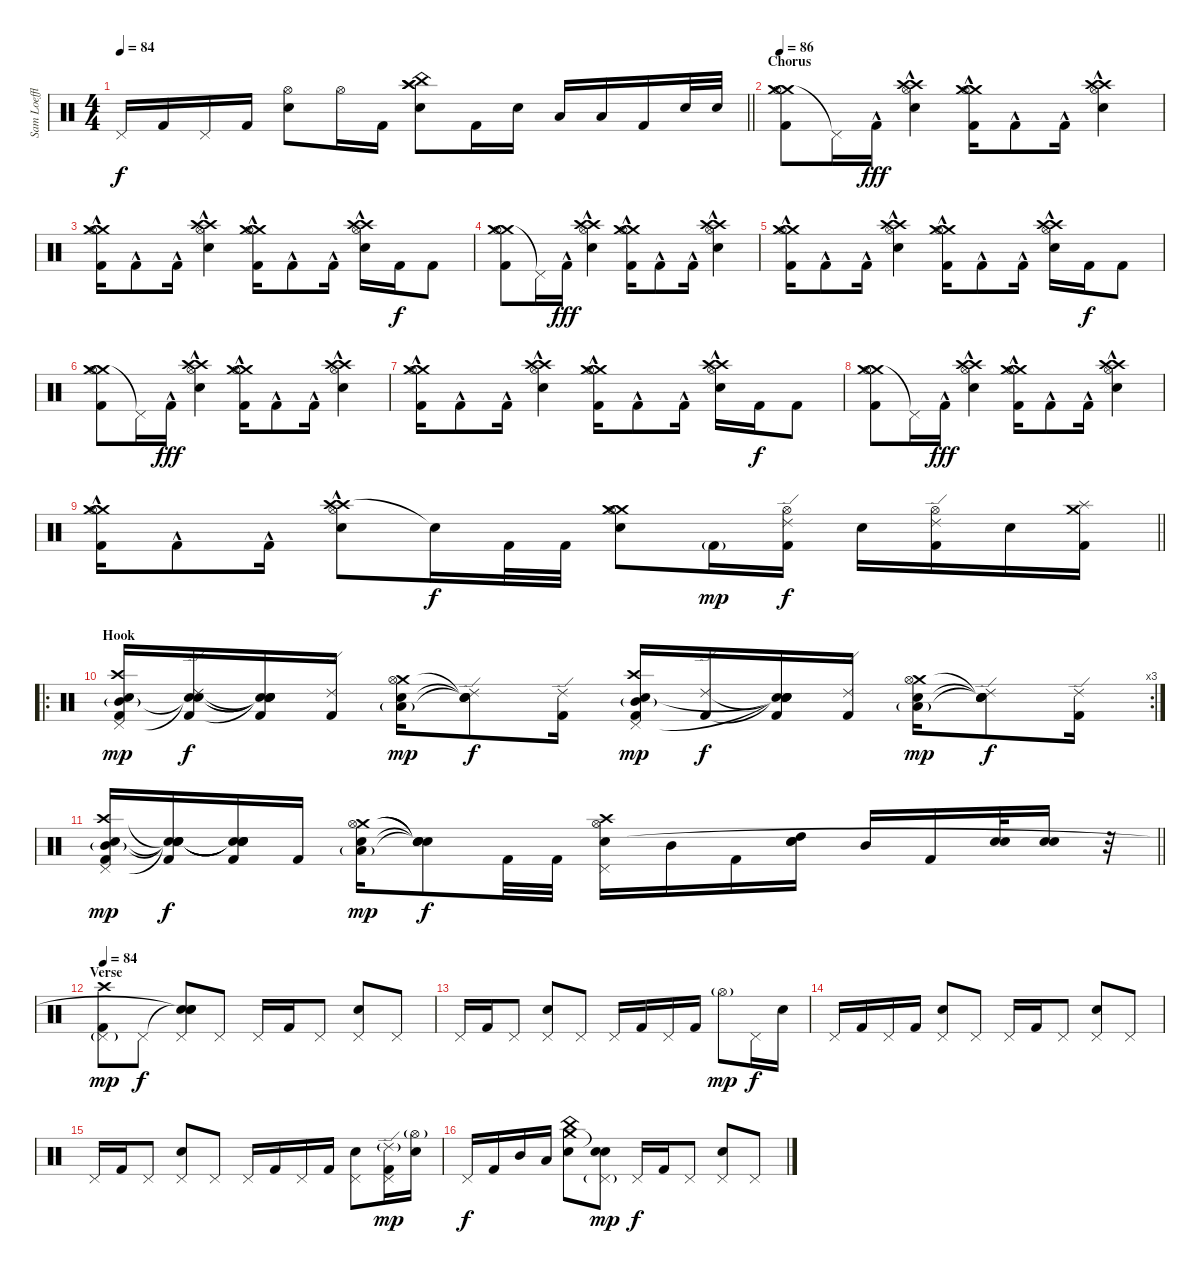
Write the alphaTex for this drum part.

\track ("Sam Loeffler- Drums" "Sam Loeffl") {instrument percussion}
\staff {score}
\articulation defaults
\ts (4 4)
\tempo 84
\clef neutral
\barLineRight lightlight
\ks c "Pedal Hi-Hat (hit)".16{dy f} "Kick (hit) 2".16 "Pedal Hi-Hat (hit)".16 "Kick (hit) 2".16
("Hi-Hat (open)" "Electric Snare (hit)").8 "Hi-Hat (open)".16 "Kick (hit) 2".16 ("China (hit)" "Crash high (hit)" "Crash high (hit)" "Electric Snare (hit)").8 "Kick (hit) 2".16 "Electric Snare (hit)".16 "Low Tom (hit)".16 "Low Floor Tom (hit)".16 "Kick (hit) 2".16 "Electric Snare (hit)".32 "Electric Snare (hit)".32 |
\section ("" "Chorus")
\tempo 86
("Crash medium (hit)" "Crash medium (hit)" "Hi-Hat (open)" "Kick (hit) 2").8 "Pedal Hi-Hat (hit)"{t}.16 "Kick (hit) 2"{hac}.16{dy fff} ("Crash high (hit)" "Crash high (hit)" "Hi-Hat (open)" "Electric Snare (hit)"{hac}).4 ("Crash medium (hit)" "Crash medium (hit)" "Hi-Hat (open)" "Kick (hit) 2"{hac}).16 "Kick (hit) 2"{hac}.8 "Kick (hit) 2"{hac}.16 ("Crash high (hit)" "Crash high (hit)" "Hi-Hat (open)" "Electric Snare (hit)"{hac}).4 |
("Crash medium (hit)" "Crash medium (hit)" "Hi-Hat (open)" "Kick (hit) 2"{hac}).16 "Kick (hit) 2"{hac}.8 "Kick (hit) 2"{hac}.16 ("Crash high (hit)" "Crash high (hit)" "Hi-Hat (open)" "Electric Snare (hit)"{hac}).4 ("Crash medium (hit)" "Crash medium (hit)" "Hi-Hat (open)" "Kick (hit) 2"{hac}).16 "Kick (hit) 2"{hac}.8 "Kick (hit) 2"{hac}.16 ("Crash high (hit)" "Crash high (hit)" "Hi-Hat (open)" "Electric Snare (hit)"{hac}).16 "Kick (hit) 2".16{dy f} "Kick (hit) 2".8 |
("Crash medium (hit)" "Crash medium (hit)" "Hi-Hat (open)" "Kick (hit) 2").8 "Pedal Hi-Hat (hit)"{t}.16 "Kick (hit) 2"{hac}.16{dy fff} ("Crash high (hit)" "Crash high (hit)" "Hi-Hat (open)" "Electric Snare (hit)"{hac}).4 ("Crash medium (hit)" "Crash medium (hit)" "Hi-Hat (open)" "Kick (hit) 2"{hac}).16 "Kick (hit) 2"{hac}.8 "Kick (hit) 2"{hac}.16 ("Crash high (hit)" "Crash high (hit)" "Hi-Hat (open)" "Electric Snare (hit)"{hac}).4 |
("Crash medium (hit)" "Crash medium (hit)" "Hi-Hat (open)" "Kick (hit) 2"{hac}).16 "Kick (hit) 2"{hac}.8 "Kick (hit) 2"{hac}.16 ("Crash high (hit)" "Crash high (hit)" "Hi-Hat (open)" "Electric Snare (hit)"{hac}).4 ("Crash medium (hit)" "Crash medium (hit)" "Hi-Hat (open)" "Kick (hit) 2"{hac}).16 "Kick (hit) 2"{hac}.8 "Kick (hit) 2"{hac}.16 ("Crash high (hit)" "Crash high (hit)" "Hi-Hat (open)" "Electric Snare (hit)"{hac}).16 "Kick (hit) 2".16{dy f} "Kick (hit) 2".8 |
("Crash medium (hit)" "Crash medium (hit)" "Hi-Hat (open)" "Kick (hit) 2").8 "Pedal Hi-Hat (hit)"{t}.16 "Kick (hit) 2"{hac}.16{dy fff} ("Crash high (hit)" "Crash high (hit)" "Hi-Hat (open)" "Electric Snare (hit)"{hac}).4 ("Crash medium (hit)" "Crash medium (hit)" "Hi-Hat (open)" "Kick (hit) 2"{hac}).16 "Kick (hit) 2"{hac}.8 "Kick (hit) 2"{hac}.16 ("Crash high (hit)" "Crash high (hit)" "Hi-Hat (open)" "Electric Snare (hit)"{hac}).4 |
("Crash medium (hit)" "Crash medium (hit)" "Hi-Hat (open)" "Kick (hit) 2"{hac}).16 "Kick (hit) 2"{hac}.8 "Kick (hit) 2"{hac}.16 ("Crash high (hit)" "Crash high (hit)" "Hi-Hat (open)" "Electric Snare (hit)"{hac}).4 ("Crash medium (hit)" "Crash medium (hit)" "Hi-Hat (open)" "Kick (hit) 2"{hac}).16 "Kick (hit) 2"{hac}.8 "Kick (hit) 2"{hac}.16 ("Crash high (hit)" "Crash high (hit)" "Hi-Hat (open)" "Electric Snare (hit)"{hac}).16 "Kick (hit) 2".16{dy f} "Kick (hit) 2".8 |
("Crash medium (hit)" "Crash medium (hit)" "Hi-Hat (open)" "Kick (hit) 2").8 "Pedal Hi-Hat (hit)"{t}.16 "Kick (hit) 2"{hac}.16{dy fff} ("Crash high (hit)" "Crash high (hit)" "Hi-Hat (open)" "Electric Snare (hit)"{hac}).4 ("Crash medium (hit)" "Crash medium (hit)" "Hi-Hat (open)" "Kick (hit) 2"{hac}).16 "Kick (hit) 2"{hac}.8 "Kick (hit) 2"{hac}.16 ("Crash high (hit)" "Crash high (hit)" "Hi-Hat (open)" "Electric Snare (hit)"{hac}).4 |
\barLineRight lightlight
("Crash medium (hit)" "Crash medium (hit)" "Hi-Hat (open)" "Kick (hit) 2"{hac}).16 "Kick (hit) 2"{hac}.8 "Kick (hit) 2"{hac}.16 ("Crash high (hit)" "Crash high (hit)" "Hi-Hat (open)" "Electric Snare (hit)"{hac}).8 "Snare (hit)"{t}.16{dy f} "Kick (hit) 2".32 "Kick (hit) 2".32 ("Crash medium (hit)" "Crash medium (hit)" "Hi-Hat (open)" "Electric Snare (hit)").8 "Kick (hit) 2"{g}.16{dy mp} ("Ride (edge) 2" "Hi-Hat (open)" "Kick (hit) 2").16{dy f} "Electric Snare (hit)".16 ("Ride (edge) 2" "Hi-Hat (open)" "Kick (hit) 2").16 "Electric Snare (hit)".16 ("Crash medium (hit)" "Splash (hit)" "Kick (hit) 2").16 |
\ro
\rc 3
\section ("" "Hook")
("Crash high (hit)" "Mid Tom (hit)"{g} "Pedal Hi-Hat (hit)" "Electric Snare (hit)" "Kick (hit) 2").16{dy mp} ("Ride (edge) 2" "Snare (hit)"{t} "Snare (hit)"{t} "Kick (hit) 2").16{dy f} ("Snare (hit)"{t} "Snare (hit)"{t} "Snare (hit)"{t} "Snare (hit)"{t} "Kick (hit) 2").16 ("Ride (edge) 2" "Kick (hit) 2").16 ("Crash medium (hit)" "Hi-Hat (open)" "Low Tom (hit)"{g} "Electric Snare (hit)").16{dy mp} ("Ride (edge) 2" "Snare (hit)"{t} "Snare (hit)"{t} "Snare (hit)"{t}).8{dy f} ("Ride (edge) 2" "Kick (hit) 2").16 ("Crash high (hit)" "Mid Tom (hit)"{g} "Pedal Hi-Hat (hit)" "Electric Snare (hit)" "Kick (hit) 2").16{dy mp} ("Ride (edge) 2" "Kick (hit) 2").16{dy f} ("Snare (hit)"{t} "Snare (hit)"{t} "Snare (hit)"{t} "Snare (hit)"{t} "Kick (hit) 2").16 ("Ride (edge) 2" "Kick (hit) 2").16 ("Crash medium (hit)" "Hi-Hat (open)" "Low Tom (hit)"{g} "Electric Snare (hit)").16{dy mp} ("Ride (edge) 2" "Snare (hit)"{t} "Snare (hit)"{t} "Snare (hit)"{t}).8{dy f} ("Ride (edge) 2" "Kick (hit) 2").16 |
\barLineRight lightlight
("Crash high (hit)" "Mid Tom (hit)"{g} "Pedal Hi-Hat (hit)" "Electric Snare (hit)" "Kick (hit) 2").16{dy mp} ("Snare (hit)"{t} "Snare (hit)"{t} "Snare (hit)"{t} "Snare (hit)"{t} "Kick (hit) 2").16{dy f} ("Snare (hit)"{t} "Snare (hit)"{t} "Snare (hit)"{t} "Snare (hit)"{t} "Kick (hit) 2").16 "Kick (hit) 2".16 ("Crash medium (hit)" "Hi-Hat (open)" "Low Tom (hit)"{g} "Electric Snare (hit)").16{dy mp} ("Snare (hit)"{t} "Snare (hit)"{t} "Snare (hit)"{t} "Snare (hit)"{t}).8{dy f} "Kick (hit) 2".32 "Kick (hit) 2".32 ("Crash high (hit)" "Hi-Hat (open)" "Pedal Hi-Hat (hit)" "Electric Snare (hit)").16 "Mid Tom (hit)".16 "Kick (hit) 2".16 ("High Tom (hit)" "Electric Snare (hit)" "Electric Snare (hit)").16 "Mid Tom (hit)".16 "Kick (hit) 2".16 ("Electric Snare (hit)" "Electric Snare (hit)").32 ("Electric Snare (hit)" "Electric Snare (hit)").16 r.32 |
\section ("" "Verse")
\tempo 84
("Crash high (hit)" "Pedal Hi-Hat (hit)"{g} "Kick (hit) 2").8{dy mp} "Pedal Hi-Hat (hit)".8{dy f} ("Snare (hit)"{t} "Pedal Hi-Hat (hit)" "Electric Snare (hit)" "Snare (hit)"{t}).8 "Pedal Hi-Hat (hit)".8 "Pedal Hi-Hat (hit)".16 "Kick (hit) 2".16 "Pedal Hi-Hat (hit)".8 ("Pedal Hi-Hat (hit)" "Electric Snare (hit)").8 "Pedal Hi-Hat (hit)".8 |
"Pedal Hi-Hat (hit)".16 "Kick (hit) 2".16 "Pedal Hi-Hat (hit)".8 ("Pedal Hi-Hat (hit)" "Electric Snare (hit)").8 "Pedal Hi-Hat (hit)".8 "Pedal Hi-Hat (hit)".16 "Kick (hit) 2".16 "Pedal Hi-Hat (hit)".16 "Kick (hit) 2".16 "Hi-Hat (open)"{g}.8{dy mp} "Pedal Hi-Hat (hit)".16{dy f} "Electric Snare (hit)".16 |
"Pedal Hi-Hat (hit)".16 "Kick (hit) 2".16 "Pedal Hi-Hat (hit)".16 "Kick (hit) 2".16 ("Pedal Hi-Hat (hit)" "Electric Snare (hit)").8 "Pedal Hi-Hat (hit)".8 "Pedal Hi-Hat (hit)".16 "Kick (hit) 2".16 "Pedal Hi-Hat (hit)".8 ("Pedal Hi-Hat (hit)" "Electric Snare (hit)").8 "Pedal Hi-Hat (hit)".8 |
"Pedal Hi-Hat (hit)".16 "Kick (hit) 2".16 "Pedal Hi-Hat (hit)".8 ("Pedal Hi-Hat (hit)" "Electric Snare (hit)").8 "Pedal Hi-Hat (hit)".8 "Pedal Hi-Hat (hit)".16 "Kick (hit) 2".16 "Pedal Hi-Hat (hit)".16 "Kick (hit) 2".16 ("Pedal Hi-Hat (hit)" "Electric Snare (hit)").8 ("Ride (edge) 2"{g} "Pedal Hi-Hat (hit)" "Kick (hit) 2").16{dy mp} ("Hi-Hat (open)"{g} "Electric Snare (hit)").16 |
"Pedal Hi-Hat (hit)".16{dy f} "Kick (hit) 2".16 "Mid Tom (hit)".16 "Low Floor Tom (hit)".16 ("Crash medium (hit)" "China (hit)" "Electric Snare (hit)").8 ("Snare (hit)"{t} "Pedal Hi-Hat (hit)"{g} "Snare (hit)"{t}).8{dy mp} "Pedal Hi-Hat (hit)".16{dy f} "Kick (hit) 2".16 "Pedal Hi-Hat (hit)".8 ("Pedal Hi-Hat (hit)" "Electric Snare (hit)").8 "Pedal Hi-Hat (hit)".8
